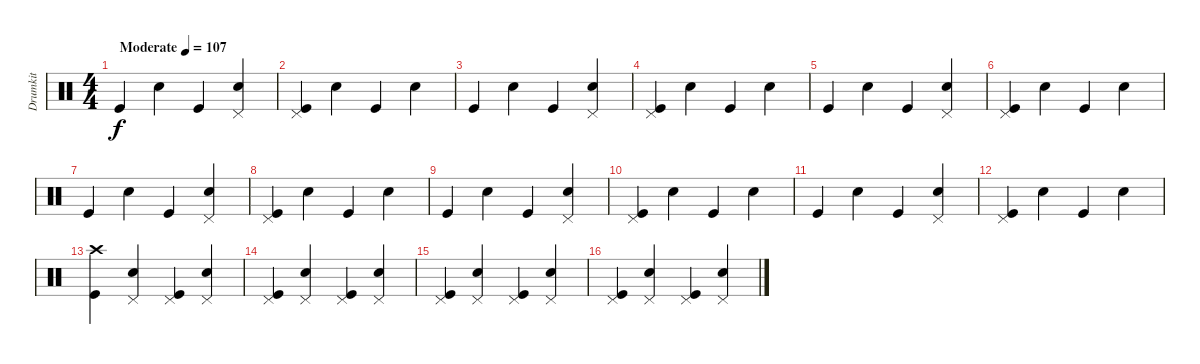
\track ("Drumkit" "Drumkit") {instrument percussion}
\staff {score}
\articulation defaults
\ts (4 4)
\tempo (107 "Moderate")
\clef neutral
\ks c "Kick (hit)".4{dy f} "Snare (hit) 2".4 "Kick (hit)".4
("Pedal Hi-Hat (hit)" "Snare (hit) 2").4 |
("Pedal Hi-Hat (hit)" "Kick (hit)").4 "Snare (hit) 2".4 "Kick (hit)".4 "Snare (hit) 2".4 |
"Kick (hit)".4 "Snare (hit) 2".4 "Kick (hit)".4 ("Pedal Hi-Hat (hit)" "Snare (hit) 2").4 |
("Pedal Hi-Hat (hit)" "Kick (hit)").4 "Snare (hit) 2".4 "Kick (hit)".4 "Snare (hit) 2".4 |
"Kick (hit)".4 "Snare (hit) 2".4 "Kick (hit)".4 ("Pedal Hi-Hat (hit)" "Snare (hit) 2").4 |
("Pedal Hi-Hat (hit)" "Kick (hit)").4 "Snare (hit) 2".4 "Kick (hit)".4 "Snare (hit) 2".4 |
"Kick (hit)".4 "Snare (hit) 2".4 "Kick (hit)".4 ("Pedal Hi-Hat (hit)" "Snare (hit) 2").4 |
("Pedal Hi-Hat (hit)" "Kick (hit)").4 "Snare (hit) 2".4 "Kick (hit)".4 "Snare (hit) 2".4 |
"Kick (hit)".4 "Snare (hit) 2".4 "Kick (hit)".4 ("Pedal Hi-Hat (hit)" "Snare (hit) 2").4 |
("Pedal Hi-Hat (hit)" "Kick (hit)").4 "Snare (hit) 2".4 "Kick (hit)".4 "Snare (hit) 2".4 |
"Kick (hit)".4 "Snare (hit) 2".4 "Kick (hit)".4 ("Pedal Hi-Hat (hit)" "Snare (hit) 2").4 |
("Pedal Hi-Hat (hit)" "Kick (hit)").4 "Snare (hit) 2".4 "Kick (hit)".4 "Snare (hit) 2".4 |
("Crash high (hit)" "Kick (hit)").4 ("Pedal Hi-Hat (hit)" "Snare (hit) 2").4 ("Pedal Hi-Hat (hit)" "Kick (hit)").4 ("Pedal Hi-Hat (hit)" "Snare (hit) 2").4 |
("Pedal Hi-Hat (hit)" "Kick (hit)").4 ("Pedal Hi-Hat (hit)" "Snare (hit) 2").4 ("Pedal Hi-Hat (hit)" "Kick (hit)").4 ("Pedal Hi-Hat (hit)" "Snare (hit) 2").4 |
("Pedal Hi-Hat (hit)" "Kick (hit)").4 ("Pedal Hi-Hat (hit)" "Snare (hit) 2").4 ("Pedal Hi-Hat (hit)" "Kick (hit)").4 ("Pedal Hi-Hat (hit)" "Snare (hit) 2").4 |
("Pedal Hi-Hat (hit)" "Kick (hit)").4 ("Pedal Hi-Hat (hit)" "Snare (hit) 2").4 ("Pedal Hi-Hat (hit)" "Kick (hit)").4 ("Pedal Hi-Hat (hit)" "Snare (hit) 2").4
